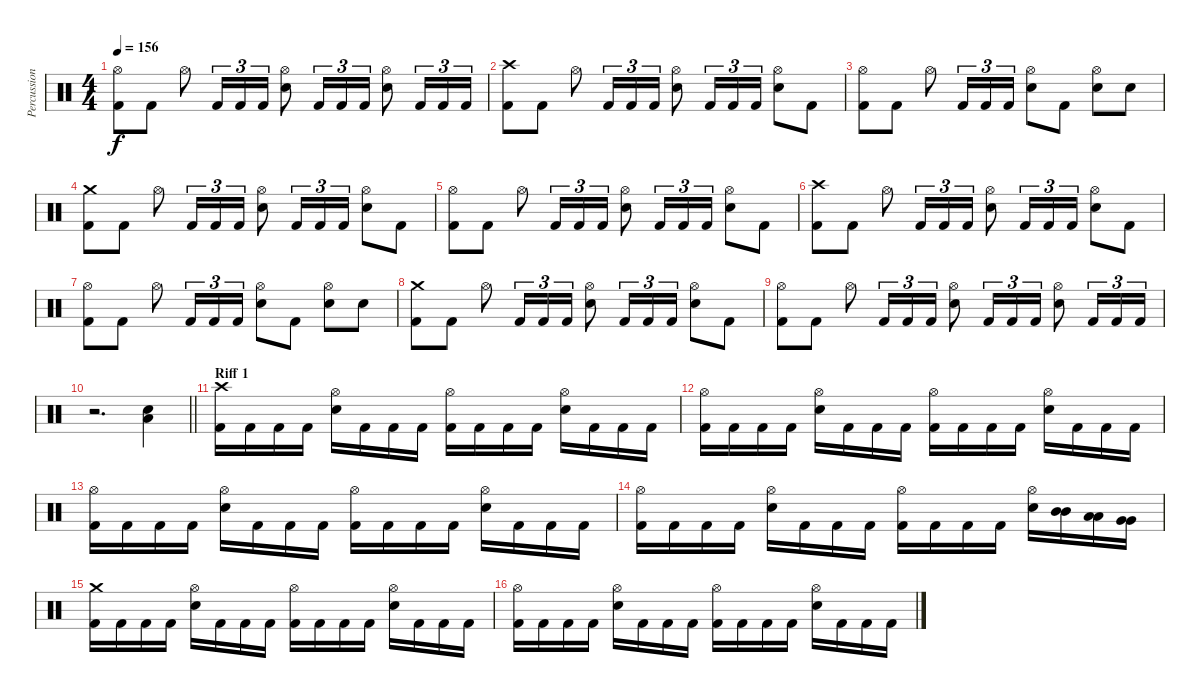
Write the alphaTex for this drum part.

\track ("Percussion" "Percussion") {instrument percussion}
\staff {score}
\articulation defaults
\ts (4 4)
\tempo 156
\clef neutral
\ks c
("Hi-Hat (open)" "Kick (hit) 2").8{dy f} "Kick (hit) 2".8 "Hi-Hat (open)".8 "Kick (hit) 2".16{tu (3 2)} "Kick (hit) 2".16{tu (3 2)} "Kick (hit) 2".16{tu (3 2)} ("Hi-Hat (open)" "Snare (hit) 2").8 "Kick (hit) 2".16{tu (3 2)} "Kick (hit) 2".16{tu (3 2)} "Kick (hit) 2".16{tu (3 2)} ("Hi-Hat (open)" "Snare (hit) 2").8 "Kick (hit) 2".16{tu (3 2)} "Kick (hit) 2".16{tu (3 2)} "Kick (hit) 2".16{tu (3 2)} |
("Crash high (hit)" "Kick (hit) 2").8 "Kick (hit) 2".8 "Hi-Hat (open)".8 "Kick (hit) 2".16{tu (3 2)} "Kick (hit) 2".16{tu (3 2)} "Kick (hit) 2".16{tu (3 2)} ("Hi-Hat (open)" "Snare (hit) 2").8 "Kick (hit) 2".16{tu (3 2)} "Kick (hit) 2".16{tu (3 2)} "Kick (hit) 2".16{tu (3 2)} ("Hi-Hat (open)" "Snare (hit) 2").8 "Kick (hit) 2".8 |
("Hi-Hat (open)" "Kick (hit) 2").8 "Kick (hit) 2".8 "Hi-Hat (open)".8 "Kick (hit) 2".16{tu (3 2)} "Kick (hit) 2".16{tu (3 2)} "Kick (hit) 2".16{tu (3 2)} ("Hi-Hat (open)" "Snare (hit) 2").8 "Kick (hit) 2".8 ("Hi-Hat (open)" "Snare (hit) 2").8 "Snare (hit) 2".8 |
("Crash medium (hit)" "Kick (hit) 2").8 "Kick (hit) 2".8 "Hi-Hat (open)".8 "Kick (hit) 2".16{tu (3 2)} "Kick (hit) 2".16{tu (3 2)} "Kick (hit) 2".16{tu (3 2)} ("Hi-Hat (open)" "Snare (hit) 2").8 "Kick (hit) 2".16{tu (3 2)} "Kick (hit) 2".16{tu (3 2)} "Kick (hit) 2".16{tu (3 2)} ("Hi-Hat (open)" "Snare (hit) 2").8 "Kick (hit) 2".8 |
("Hi-Hat (open)" "Kick (hit) 2").8 "Kick (hit) 2".8 "Hi-Hat (open)".8 "Kick (hit) 2".16{tu (3 2)} "Kick (hit) 2".16{tu (3 2)} "Kick (hit) 2".16{tu (3 2)} ("Hi-Hat (open)" "Snare (hit) 2").8 "Kick (hit) 2".16{tu (3 2)} "Kick (hit) 2".16{tu (3 2)} "Kick (hit) 2".16{tu (3 2)} ("Hi-Hat (open)" "Snare (hit) 2").8 "Kick (hit) 2".8 |
("Crash high (hit)" "Kick (hit) 2").8 "Kick (hit) 2".8 "Hi-Hat (open)".8 "Kick (hit) 2".16{tu (3 2)} "Kick (hit) 2".16{tu (3 2)} "Kick (hit) 2".16{tu (3 2)} ("Hi-Hat (open)" "Snare (hit) 2").8 "Kick (hit) 2".16{tu (3 2)} "Kick (hit) 2".16{tu (3 2)} "Kick (hit) 2".16{tu (3 2)} ("Hi-Hat (open)" "Snare (hit) 2").8 "Kick (hit) 2".8 |
("Hi-Hat (open)" "Kick (hit) 2").8 "Kick (hit) 2".8 "Hi-Hat (open)".8 "Kick (hit) 2".16{tu (3 2)} "Kick (hit) 2".16{tu (3 2)} "Kick (hit) 2".16{tu (3 2)} ("Hi-Hat (open)" "Snare (hit) 2").8 "Kick (hit) 2".8 ("Hi-Hat (open)" "Snare (hit) 2").8 "Snare (hit) 2".8 |
("Crash medium (hit)" "Kick (hit) 2").8 "Kick (hit) 2".8 "Hi-Hat (open)".8 "Kick (hit) 2".16{tu (3 2)} "Kick (hit) 2".16{tu (3 2)} "Kick (hit) 2".16{tu (3 2)} ("Hi-Hat (open)" "Snare (hit) 2").8 "Kick (hit) 2".16{tu (3 2)} "Kick (hit) 2".16{tu (3 2)} "Kick (hit) 2".16{tu (3 2)} ("Hi-Hat (open)" "Snare (hit) 2").8 "Kick (hit) 2".8 |
("Hi-Hat (open)" "Kick (hit) 2").8 "Kick (hit) 2".8 "Hi-Hat (open)".8 "Kick (hit) 2".16{tu (3 2)} "Kick (hit) 2".16{tu (3 2)} "Kick (hit) 2".16{tu (3 2)} ("Hi-Hat (open)" "Snare (hit) 2").8 "Kick (hit) 2".16{tu (3 2)} "Kick (hit) 2".16{tu (3 2)} "Kick (hit) 2".16{tu (3 2)} ("Hi-Hat (open)" "Snare (hit) 2").8 "Kick (hit) 2".16{tu (3 2)} "Kick (hit) 2".16{tu (3 2)} "Kick (hit) 2".16{tu (3 2)} |
\barLineRight lightlight
r.2{d} ("Low Floor Tom (hit)" "Snare (hit) 2").4 |
\section ("" "Riff 1")
("Crash high (hit)" "Kick (hit) 2").16 "Kick (hit) 2".16 "Kick (hit) 2".16 "Kick (hit) 2".16 ("Hi-Hat (open)" "Snare (hit) 2").16 "Kick (hit) 2".16 "Kick (hit) 2".16 "Kick (hit) 2".16 ("Hi-Hat (open)" "Kick (hit) 2").16 "Kick (hit) 2".16 "Kick (hit) 2".16 "Kick (hit) 2".16 ("Hi-Hat (open)" "Snare (hit) 2").16 "Kick (hit) 2".16 "Kick (hit) 2".16 "Kick (hit) 2".16 |
("Hi-Hat (open)" "Kick (hit) 2").16 "Kick (hit) 2".16 "Kick (hit) 2".16 "Kick (hit) 2".16 ("Hi-Hat (open)" "Snare (hit) 2").16 "Kick (hit) 2".16 "Kick (hit) 2".16 "Kick (hit) 2".16 ("Hi-Hat (open)" "Kick (hit) 2").16 "Kick (hit) 2".16 "Kick (hit) 2".16 "Kick (hit) 2".16 ("Hi-Hat (open)" "Snare (hit) 2").16 "Kick (hit) 2".16 "Kick (hit) 2".16 "Kick (hit) 2".16 |
("Hi-Hat (open)" "Kick (hit) 2").16 "Kick (hit) 2".16 "Kick (hit) 2".16 "Kick (hit) 2".16 ("Hi-Hat (open)" "Snare (hit) 2").16 "Kick (hit) 2".16 "Kick (hit) 2".16 "Kick (hit) 2".16 ("Hi-Hat (open)" "Kick (hit) 2").16 "Kick (hit) 2".16 "Kick (hit) 2".16 "Kick (hit) 2".16 ("Hi-Hat (open)" "Snare (hit) 2").16 "Kick (hit) 2".16 "Kick (hit) 2".16 "Kick (hit) 2".16 |
("Hi-Hat (open)" "Kick (hit) 2").16 "Kick (hit) 2".16 "Kick (hit) 2".16 "Kick (hit) 2".16 ("Hi-Hat (open)" "Snare (hit) 2").16 "Kick (hit) 2".16 "Kick (hit) 2".16 "Kick (hit) 2".16 ("Hi-Hat (open)" "Kick (hit) 2").16 "Kick (hit) 2".16 "Kick (hit) 2".16 "Kick (hit) 2".16 ("Hi-Hat (open)" "Snare (hit) 2").16 ("Mid Tom (hit)" "Mid Tom (hit)").16 ("Low Tom (hit)" "Low Tom (hit)").16 ("Very Low Tom (hit)" "Very Low Tom (hit)").16 |
("Crash medium (hit)" "Kick (hit) 2").16 "Kick (hit) 2".16 "Kick (hit) 2".16 "Kick (hit) 2".16 ("Hi-Hat (open)" "Snare (hit) 2").16 "Kick (hit) 2".16 "Kick (hit) 2".16 "Kick (hit) 2".16 ("Hi-Hat (open)" "Kick (hit) 2").16 "Kick (hit) 2".16 "Kick (hit) 2".16 "Kick (hit) 2".16 ("Hi-Hat (open)" "Snare (hit) 2").16 "Kick (hit) 2".16 "Kick (hit) 2".16 "Kick (hit) 2".16 |
("Hi-Hat (open)" "Kick (hit) 2").16 "Kick (hit) 2".16 "Kick (hit) 2".16 "Kick (hit) 2".16 ("Hi-Hat (open)" "Snare (hit) 2").16 "Kick (hit) 2".16 "Kick (hit) 2".16 "Kick (hit) 2".16 ("Hi-Hat (open)" "Kick (hit) 2").16 "Kick (hit) 2".16 "Kick (hit) 2".16 "Kick (hit) 2".16 ("Hi-Hat (open)" "Snare (hit) 2").16 "Kick (hit) 2".16 "Kick (hit) 2".16 "Kick (hit) 2".16
